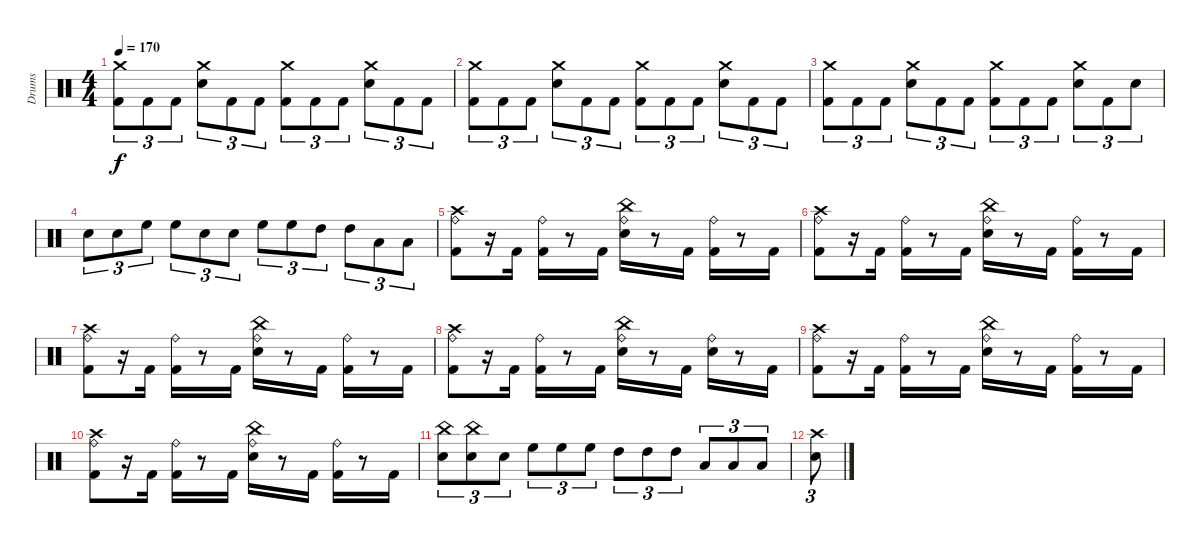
\track ("Drums" "Drums") {instrument percussion}
\staff {score}
\articulation defaults
\ts (4 4)
\tempo 170
\clef neutral
\ks c
("Crash medium (hit)" "Kick (hit) 2").8{tu (3 2) dy f} "Kick (hit) 2".8{tu (3 2)} "Kick (hit) 2".8{tu (3 2)} ("Crash medium (hit)" "Electric Snare (hit)").8{tu (3 2)} "Kick (hit) 2".8{tu (3 2)} "Kick (hit) 2".8{tu (3 2)} ("Crash medium (hit)" "Kick (hit) 2").8{tu (3 2)} "Kick (hit) 2".8{tu (3 2)} "Kick (hit) 2".8{tu (3 2)} ("Crash medium (hit)" "Electric Snare (hit)").8{tu (3 2)} "Kick (hit) 2".8{tu (3 2)} "Kick (hit) 2".8{tu (3 2)} |
("Crash medium (hit)" "Kick (hit) 2").8{tu (3 2)} "Kick (hit) 2".8{tu (3 2)} "Kick (hit) 2".8{tu (3 2)} ("Crash medium (hit)" "Electric Snare (hit)").8{tu (3 2)} "Kick (hit) 2".8{tu (3 2)} "Kick (hit) 2".8{tu (3 2)} ("Crash medium (hit)" "Kick (hit) 2").8{tu (3 2)} "Kick (hit) 2".8{tu (3 2)} "Kick (hit) 2".8{tu (3 2)} ("Crash medium (hit)" "Electric Snare (hit)").8{tu (3 2)} "Kick (hit) 2".8{tu (3 2)} "Kick (hit) 2".8{tu (3 2)} |
("Crash medium (hit)" "Kick (hit) 2").8{tu (3 2)} "Kick (hit) 2".8{tu (3 2)} "Kick (hit) 2".8{tu (3 2)} ("Crash medium (hit)" "Electric Snare (hit)").8{tu (3 2)} "Kick (hit) 2".8{tu (3 2)} "Kick (hit) 2".8{tu (3 2)} ("Crash medium (hit)" "Kick (hit) 2").8{tu (3 2)} "Kick (hit) 2".8{tu (3 2)} "Kick (hit) 2".8{tu (3 2)} ("Crash medium (hit)" "Electric Snare (hit)").8{tu (3 2)} "Kick (hit) 2".8{tu (3 2)} "Electric Snare (hit)".8{tu (3 2)} |
"Electric Snare (hit)".8{tu (3 2)} "Electric Snare (hit)".8{tu (3 2)} "High Floor Tom (hit)".8{tu (3 2)} "High Floor Tom (hit)".8{tu (3 2)} "Electric Snare (hit)".8{tu (3 2)} "Electric Snare (hit)".8{tu (3 2)} "High Floor Tom (hit)".8{tu (3 2)} "High Floor Tom (hit)".8{tu (3 2)} "High Tom (hit)".8{tu (3 2)} "High Tom (hit)".8{tu (3 2)} "Low Floor Tom (hit)".8{tu (3 2)} "Low Floor Tom (hit)".8{tu (3 2)} |
("Crash high (hit)" "Ride (bell)" "Kick (hit) 2").8 r.16 "Kick (hit) 2".16 ("Ride (bell)" "Kick (hit) 2").16 r.8 "Kick (hit) 2".16 ("China (hit)" "Ride (bell)" "Electric Snare (hit)").16 r.8 "Kick (hit) 2".16 ("Ride (bell)" "Kick (hit) 2").16 r.8 "Kick (hit) 2".16 |
("Crash high (hit)" "Ride (bell)" "Kick (hit) 2").8 r.16 "Kick (hit) 2".16 ("Ride (bell)" "Kick (hit) 2").16 r.8 "Kick (hit) 2".16 ("China (hit)" "Ride (bell)" "Electric Snare (hit)").16 r.8 "Kick (hit) 2".16 ("Ride (bell)" "Kick (hit) 2").16 r.8 "Kick (hit) 2".16 |
("Crash high (hit)" "Ride (bell)" "Kick (hit) 2").8 r.16 "Kick (hit) 2".16 ("Ride (bell)" "Kick (hit) 2").16 r.8 "Kick (hit) 2".16 ("China (hit)" "Ride (bell)" "Electric Snare (hit)").16 r.8 "Kick (hit) 2".16 ("Ride (bell)" "Kick (hit) 2").16 r.8 "Kick (hit) 2".16 |
("Crash high (hit)" "Ride (bell)" "Kick (hit) 2").8 r.16 "Kick (hit) 2".16 ("Ride (bell)" "Kick (hit) 2").16 r.8 "Kick (hit) 2".16 ("China (hit)" "Ride (bell)" "Electric Snare (hit)").16 r.8 "Kick (hit) 2".16 ("Ride (bell)" "Electric Snare (hit)").16 r.8 "Kick (hit) 2".16 |
("Crash high (hit)" "Ride (bell)" "Kick (hit) 2").8 r.16 "Kick (hit) 2".16 ("Ride (bell)" "Kick (hit) 2").16 r.8 "Kick (hit) 2".16 ("China (hit)" "Ride (bell)" "Electric Snare (hit)").16 r.8 "Kick (hit) 2".16 ("Ride (bell)" "Kick (hit) 2").16 r.8 "Kick (hit) 2".16 |
("Crash high (hit)" "Ride (bell)" "Kick (hit) 2").8 r.16 "Kick (hit) 2".16 ("Ride (bell)" "Kick (hit) 2").16 r.8 "Kick (hit) 2".16 ("China (hit)" "Ride (bell)" "Electric Snare (hit)").16 r.8 "Kick (hit) 2".16 ("Ride (bell)" "Kick (hit) 2").16 r.8 "Kick (hit) 2".16 |
("China (hit)" "Electric Snare (hit)").8{tu (3 2)} ("China (hit)" "Electric Snare (hit)").8{tu (3 2)} "Electric Snare (hit)".8{tu (3 2)} "High Floor Tom (hit)".8{tu (3 2)} "High Floor Tom (hit)".8{tu (3 2)} "High Floor Tom (hit)".8{tu (3 2)} "High Tom (hit)".8{tu (3 2)} "High Tom (hit)".8{tu (3 2)} "High Tom (hit)".8{tu (3 2)} "Low Floor Tom (hit)".8{tu (3 2)} "Low Floor Tom (hit)".8{tu (3 2)} "Low Floor Tom (hit)".8{tu (3 2)} |
("Crash high (hit)" "Electric Snare (hit)").8{tu (3 2)}
